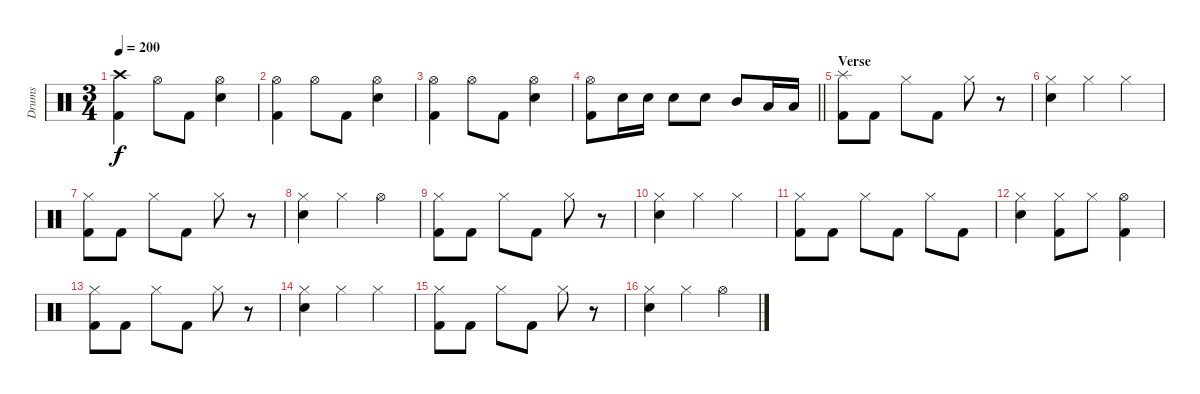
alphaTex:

\track ("Drums" "Drums") {instrument percussion}
\staff {score}
\articulation defaults
\ts (3 4)
\tempo 200
\clef neutral
\ks c
("Crash high (hit)" "Kick (hit) 2").4{dy f} "Hi-Hat (open)".8 "Kick (hit) 2".8 ("Hi-Hat (open)" "Electric Snare (hit)").4 |
("Hi-Hat (open)" "Kick (hit) 2").4 "Hi-Hat (open)".8 "Kick (hit) 2".8 ("Hi-Hat (open)" "Electric Snare (hit)").4 |
("Hi-Hat (open)" "Kick (hit) 2").4 "Hi-Hat (open)".8 "Kick (hit) 2".8 ("Hi-Hat (open)" "Electric Snare (hit)").4 |
\barLineRight lightlight
("Hi-Hat (open)" "Kick (hit) 2").8 "Electric Snare (hit)".16 "Electric Snare (hit)".16 "Snare (hit) 2".8 "Snare (hit) 2".8 "Mid Tom (hit)".8 "Low Tom (hit)".16 "Low Tom (hit)".16 |
\section ("" "Verse")
("Splash (hit)" "Kick (hit) 2").8 "Kick (hit) 2".8 "Hi-Hat (closed)".8 "Kick (hit) 2".8 "Hi-Hat (closed)".8 r.8 |
("Hi-Hat (closed)" "Electric Snare (hit)").4 "Hi-Hat (closed)".4 "Hi-Hat (closed)".4 |
("Hi-Hat (closed)" "Kick (hit) 2").8 "Kick (hit) 2".8 "Hi-Hat (closed)".8 "Kick (hit) 2".8 "Hi-Hat (closed)".8 r.8 |
("Hi-Hat (closed)" "Electric Snare (hit)").4 "Hi-Hat (closed)".4 "Hi-Hat (open)".4 |
("Hi-Hat (closed)" "Kick (hit) 2").8 "Kick (hit) 2".8 "Hi-Hat (closed)".8 "Kick (hit) 2".8 "Hi-Hat (closed)".8 r.8 |
("Hi-Hat (closed)" "Electric Snare (hit)").4 "Hi-Hat (closed)".4 "Hi-Hat (closed)".4 |
("Hi-Hat (closed)" "Kick (hit) 2").8 "Kick (hit) 2".8 "Hi-Hat (closed)".8 "Kick (hit) 2".8 "Hi-Hat (closed)".8 "Kick (hit) 2".8 |
("Hi-Hat (closed)" "Electric Snare (hit)").4 ("Hi-Hat (closed)" "Kick (hit) 2").8 "Hi-Hat (closed)".8 ("Hi-Hat (open)" "Kick (hit) 2").4 |
("Hi-Hat (closed)" "Kick (hit) 2").8 "Kick (hit) 2".8 "Hi-Hat (closed)".8 "Kick (hit) 2".8 "Hi-Hat (closed)".8 r.8 |
("Hi-Hat (closed)" "Electric Snare (hit)").4 "Hi-Hat (closed)".4 "Hi-Hat (closed)".4 |
("Hi-Hat (closed)" "Kick (hit) 2").8 "Kick (hit) 2".8 "Hi-Hat (closed)".8 "Kick (hit) 2".8 "Hi-Hat (closed)".8 r.8 |
("Hi-Hat (closed)" "Electric Snare (hit)").4 "Hi-Hat (closed)".4 "Hi-Hat (open)".4
